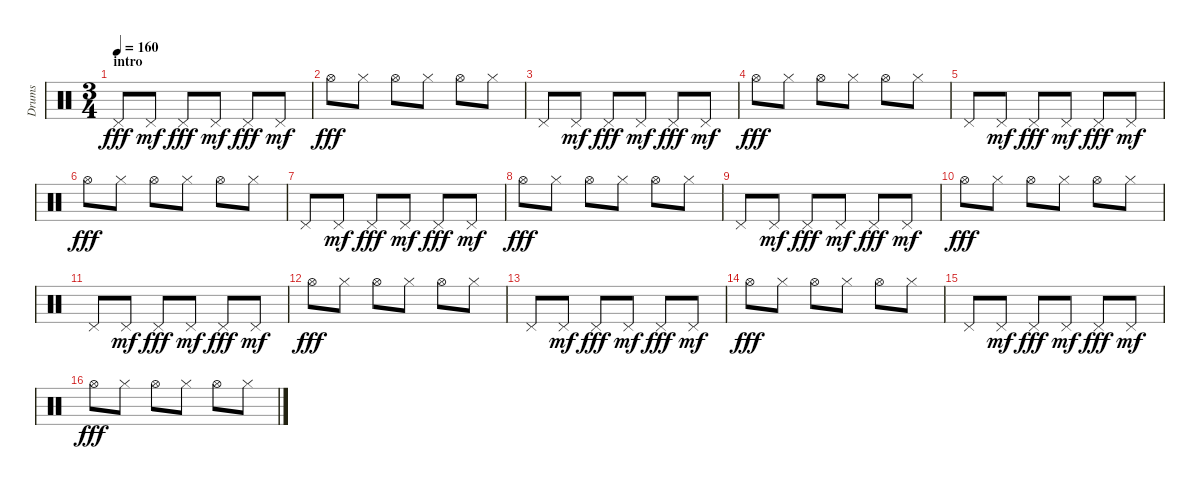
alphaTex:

\track ("Drums" "Drums") {instrument percussion}
\staff {score}
\articulation defaults
\ts (3 4)
\section ("" "intro")
\tempo 160
\tempo 120
\tempo 160
\clef neutral
\ks c "Pedal Hi-Hat (hit)".8{dy fff} "Pedal Hi-Hat (hit)".8{dy mf} "Pedal Hi-Hat (hit)".8{dy fff} "Pedal Hi-Hat (hit)".8{dy mf} "Pedal Hi-Hat (hit)".8{dy fff} "Pedal Hi-Hat (hit)".8{dy mf}
|
"Hi-Hat (open)".8{dy fff} "Hi-Hat (closed)".8 "Hi-Hat (open)".8 "Hi-Hat (closed)".8 "Hi-Hat (open)".8 "Hi-Hat (closed)".8 |
"Pedal Hi-Hat (hit)".8 "Pedal Hi-Hat (hit)".8{dy mf} "Pedal Hi-Hat (hit)".8{dy fff} "Pedal Hi-Hat (hit)".8{dy mf} "Pedal Hi-Hat (hit)".8{dy fff} "Pedal Hi-Hat (hit)".8{dy mf} |
"Hi-Hat (open)".8{dy fff} "Hi-Hat (closed)".8 "Hi-Hat (open)".8 "Hi-Hat (closed)".8 "Hi-Hat (open)".8 "Hi-Hat (closed)".8 |
"Pedal Hi-Hat (hit)".8 "Pedal Hi-Hat (hit)".8{dy mf} "Pedal Hi-Hat (hit)".8{dy fff} "Pedal Hi-Hat (hit)".8{dy mf} "Pedal Hi-Hat (hit)".8{dy fff} "Pedal Hi-Hat (hit)".8{dy mf} |
"Hi-Hat (open)".8{dy fff} "Hi-Hat (closed)".8 "Hi-Hat (open)".8 "Hi-Hat (closed)".8 "Hi-Hat (open)".8 "Hi-Hat (closed)".8 |
"Pedal Hi-Hat (hit)".8 "Pedal Hi-Hat (hit)".8{dy mf} "Pedal Hi-Hat (hit)".8{dy fff} "Pedal Hi-Hat (hit)".8{dy mf} "Pedal Hi-Hat (hit)".8{dy fff} "Pedal Hi-Hat (hit)".8{dy mf} |
"Hi-Hat (open)".8{dy fff} "Hi-Hat (closed)".8 "Hi-Hat (open)".8 "Hi-Hat (closed)".8 "Hi-Hat (open)".8 "Hi-Hat (closed)".8 |
"Pedal Hi-Hat (hit)".8 "Pedal Hi-Hat (hit)".8{dy mf} "Pedal Hi-Hat (hit)".8{dy fff} "Pedal Hi-Hat (hit)".8{dy mf} "Pedal Hi-Hat (hit)".8{dy fff} "Pedal Hi-Hat (hit)".8{dy mf} |
"Hi-Hat (open)".8{dy fff} "Hi-Hat (closed)".8 "Hi-Hat (open)".8 "Hi-Hat (closed)".8 "Hi-Hat (open)".8 "Hi-Hat (closed)".8 |
"Pedal Hi-Hat (hit)".8 "Pedal Hi-Hat (hit)".8{dy mf} "Pedal Hi-Hat (hit)".8{dy fff} "Pedal Hi-Hat (hit)".8{dy mf} "Pedal Hi-Hat (hit)".8{dy fff} "Pedal Hi-Hat (hit)".8{dy mf} |
"Hi-Hat (open)".8{dy fff} "Hi-Hat (closed)".8 "Hi-Hat (open)".8 "Hi-Hat (closed)".8 "Hi-Hat (open)".8 "Hi-Hat (closed)".8 |
"Pedal Hi-Hat (hit)".8 "Pedal Hi-Hat (hit)".8{dy mf} "Pedal Hi-Hat (hit)".8{dy fff} "Pedal Hi-Hat (hit)".8{dy mf} "Pedal Hi-Hat (hit)".8{dy fff} "Pedal Hi-Hat (hit)".8{dy mf} |
"Hi-Hat (open)".8{dy fff} "Hi-Hat (closed)".8 "Hi-Hat (open)".8 "Hi-Hat (closed)".8 "Hi-Hat (open)".8 "Hi-Hat (closed)".8 |
"Pedal Hi-Hat (hit)".8 "Pedal Hi-Hat (hit)".8{dy mf} "Pedal Hi-Hat (hit)".8{dy fff} "Pedal Hi-Hat (hit)".8{dy mf} "Pedal Hi-Hat (hit)".8{dy fff} "Pedal Hi-Hat (hit)".8{dy mf} |
"Hi-Hat (open)".8{dy fff} "Hi-Hat (closed)".8 "Hi-Hat (open)".8 "Hi-Hat (closed)".8 "Hi-Hat (open)".8 "Hi-Hat (closed)".8
